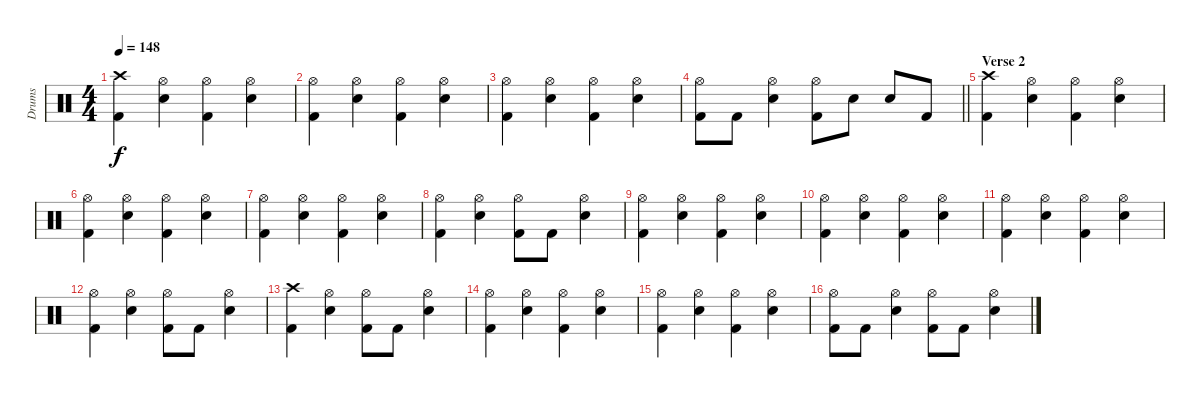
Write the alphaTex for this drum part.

\track ("Drums" "Drums") {instrument percussion}
\staff {score}
\articulation defaults
\ts (4 4)
\tempo 148
\clef neutral
\ks c
("Crash high (hit)" "Kick (hit) 2").4{dy f} ("Hi-Hat (open)" "Snare (hit) 2").4 ("Hi-Hat (open)" "Kick (hit) 2").4 ("Hi-Hat (open)" "Snare (hit) 2").4 |
("Hi-Hat (open)" "Kick (hit) 2").4 ("Hi-Hat (open)" "Snare (hit) 2").4 ("Hi-Hat (open)" "Kick (hit) 2").4 ("Hi-Hat (open)" "Snare (hit) 2").4 |
("Hi-Hat (open)" "Kick (hit) 2").4 ("Hi-Hat (open)" "Snare (hit) 2").4 ("Hi-Hat (open)" "Kick (hit) 2").4 ("Hi-Hat (open)" "Snare (hit) 2").4 |
\barLineRight lightlight
("Hi-Hat (open)" "Kick (hit) 2").8 "Kick (hit) 2".8 ("Hi-Hat (open)" "Snare (hit) 2").4 ("Hi-Hat (open)" "Kick (hit) 2").8 "Snare (hit) 2".8 "Snare (hit) 2".8 "Kick (hit) 2".8 |
\section ("" "Verse 2")
("Crash high (hit)" "Kick (hit) 2").4 ("Hi-Hat (open)" "Snare (hit) 2").4 ("Hi-Hat (open)" "Kick (hit) 2").4 ("Hi-Hat (open)" "Snare (hit) 2").4 |
("Hi-Hat (open)" "Kick (hit) 2").4 ("Hi-Hat (open)" "Snare (hit) 2").4 ("Hi-Hat (open)" "Kick (hit) 2").4 ("Hi-Hat (open)" "Snare (hit) 2").4 |
("Hi-Hat (open)" "Kick (hit) 2").4 ("Hi-Hat (open)" "Snare (hit) 2").4 ("Hi-Hat (open)" "Kick (hit) 2").4 ("Hi-Hat (open)" "Snare (hit) 2").4 |
("Hi-Hat (open)" "Kick (hit) 2").4 ("Hi-Hat (open)" "Snare (hit) 2").4 ("Hi-Hat (open)" "Kick (hit) 2").8 "Kick (hit) 2".8 ("Hi-Hat (open)" "Snare (hit) 2").4 |
("Hi-Hat (open)" "Kick (hit) 2").4 ("Hi-Hat (open)" "Snare (hit) 2").4 ("Hi-Hat (open)" "Kick (hit) 2").4 ("Hi-Hat (open)" "Snare (hit) 2").4 |
("Hi-Hat (open)" "Kick (hit) 2").4 ("Hi-Hat (open)" "Snare (hit) 2").4 ("Hi-Hat (open)" "Kick (hit) 2").4 ("Hi-Hat (open)" "Snare (hit) 2").4 |
("Hi-Hat (open)" "Kick (hit) 2").4 ("Hi-Hat (open)" "Snare (hit) 2").4 ("Hi-Hat (open)" "Kick (hit) 2").4 ("Hi-Hat (open)" "Snare (hit) 2").4 |
("Hi-Hat (open)" "Kick (hit) 2").4 ("Hi-Hat (open)" "Snare (hit) 2").4 ("Hi-Hat (open)" "Kick (hit) 2").8 "Kick (hit) 2".8 ("Hi-Hat (open)" "Snare (hit) 2").4 |
("Crash high (hit)" "Kick (hit) 2").4 ("Hi-Hat (open)" "Snare (hit) 2").4 ("Hi-Hat (open)" "Kick (hit) 2").8 "Kick (hit) 2".8 ("Hi-Hat (open)" "Snare (hit) 2").4 |
("Hi-Hat (open)" "Kick (hit) 2").4 ("Hi-Hat (open)" "Snare (hit) 2").4 ("Hi-Hat (open)" "Kick (hit) 2").4 ("Hi-Hat (open)" "Snare (hit) 2").4 |
("Hi-Hat (open)" "Kick (hit) 2").4 ("Hi-Hat (open)" "Snare (hit) 2").4 ("Hi-Hat (open)" "Kick (hit) 2").4 ("Hi-Hat (open)" "Snare (hit) 2").4 |
("Hi-Hat (open)" "Kick (hit) 2").8 "Kick (hit) 2".8 ("Hi-Hat (open)" "Snare (hit) 2").4 ("Hi-Hat (open)" "Kick (hit) 2").8 "Kick (hit) 2".8 ("Hi-Hat (open)" "Snare (hit) 2").4
